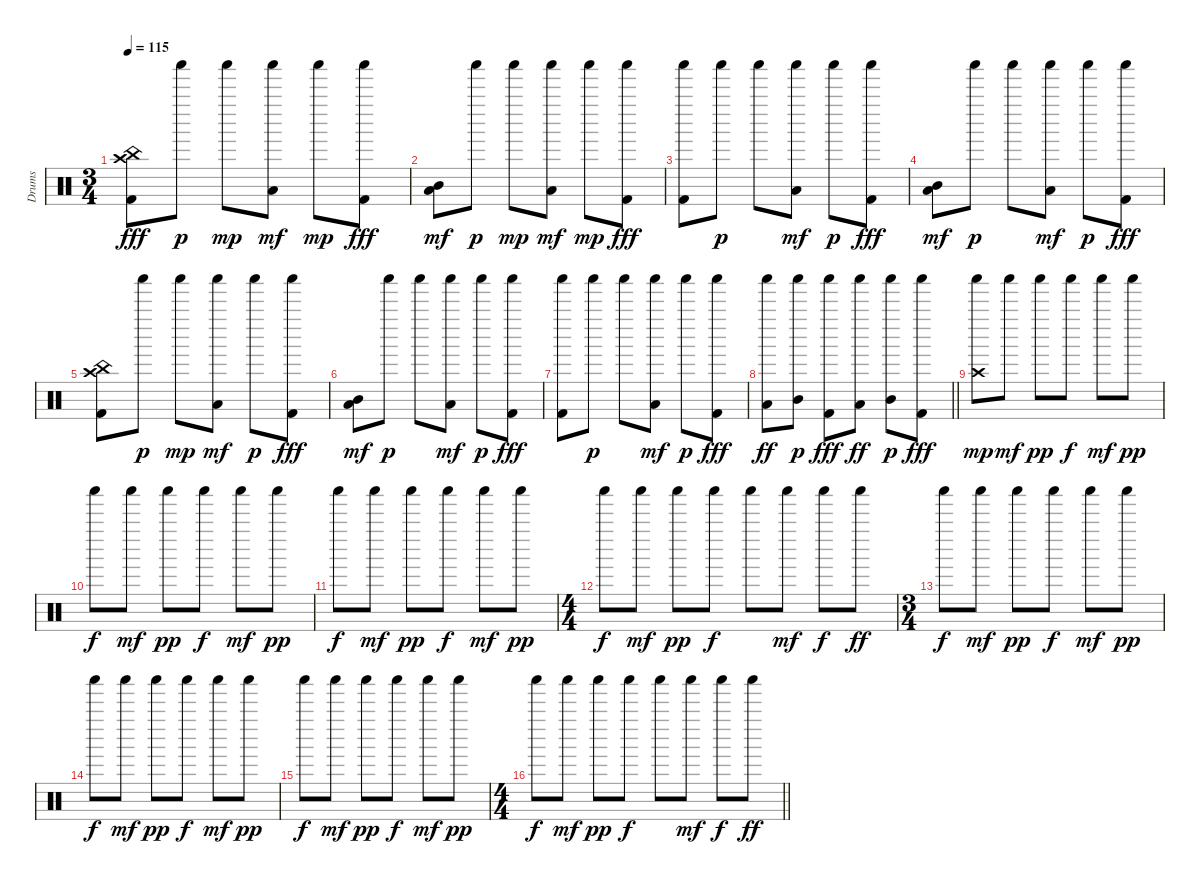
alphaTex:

\track ("Drums" "Drums") {instrument percussion}
\staff {score}
\articulation defaults
\ts (3 4)
\section ("" "")
\tempo 115
\clef neutral
\ks c
("China (hit)" "Crash high (hit)" "Kick (hit) 2").8{dy fff} "Shaker (hit)".8{dy p} "Shaker (hit)".8{dy mp} ("Shaker (hit)" "Low Tom (hit)").8{dy mf} "Shaker (hit)".8{dy mp} ("Shaker (hit)" "Kick (hit) 2").8{dy fff} |
("Mid Tom (hit)" "Low Tom (hit)").8{dy mf} "Shaker (hit)".8{dy p} "Shaker (hit)".8{dy mp} ("Shaker (hit)" "Low Tom (hit)").8{dy mf} "Shaker (hit)".8{dy mp} ("Shaker (hit)" "Kick (hit) 2").8{dy fff} |
("Shaker (hit)" "Kick (hit) 2").8 "Shaker (hit)".8{dy p} "Shaker (hit)".8 ("Shaker (hit)" "Low Tom (hit)").8{dy mf} "Shaker (hit)".8{dy p} ("Shaker (hit)" "Kick (hit) 2").8{dy fff} |
("Mid Tom (hit)" "Low Tom (hit)").8{dy mf} "Shaker (hit)".8{dy p} "Shaker (hit)".8 ("Shaker (hit)" "Low Tom (hit)").8{dy mf} "Shaker (hit)".8{dy p} ("Shaker (hit)" "Kick (hit) 2").8{dy fff} |
("China (hit)" "Crash high (hit)" "Kick (hit) 2").8 "Shaker (hit)".8{dy p} "Shaker (hit)".8{dy mp} ("Shaker (hit)" "Low Tom (hit)").8{dy mf} "Shaker (hit)".8{dy p} ("Shaker (hit)" "Kick (hit) 2").8{dy fff} |
("Mid Tom (hit)" "Low Tom (hit)").8{dy mf} "Shaker (hit)".8{dy p} "Shaker (hit)".8 ("Shaker (hit)" "Low Tom (hit)").8{dy mf} "Shaker (hit)".8{dy p} ("Shaker (hit)" "Kick (hit) 2").8{dy fff} |
("Shaker (hit)" "Kick (hit) 2").8 "Shaker (hit)".8{dy p} "Shaker (hit)".8 ("Shaker (hit)" "Low Tom (hit)").8{dy mf} "Shaker (hit)".8{dy p} ("Shaker (hit)" "Kick (hit) 2").8{dy fff} |
\barLineRight lightlight
("Shaker (hit)" "Low Tom (hit)").8{dy ff} ("Shaker (hit)" "Mid Tom (hit)").8{dy p} ("Shaker (hit)" "Kick (hit) 2").8{dy fff} ("Shaker (hit)" "Low Tom (hit)").8{dy ff} ("Shaker (hit)" "Mid Tom (hit)").8{dy p} ("Shaker (hit)" "Kick (hit) 2").8{dy fff} |
\section ("" "")
("Crash high (hit)" "Shaker (hit)").8{dy mp} "Shaker (hit)".8{dy mf} "Shaker (hit)".8{dy pp} "Shaker (hit)".8{dy f} "Shaker (hit)".8{dy mf} "Shaker (hit)".8{dy pp} |
"Shaker (hit)".8{dy f} "Shaker (hit)".8{dy mf} "Shaker (hit)".8{dy pp} "Shaker (hit)".8{dy f} "Shaker (hit)".8{dy mf} "Shaker (hit)".8{dy pp} |
"Shaker (hit)".8{dy f} "Shaker (hit)".8{dy mf} "Shaker (hit)".8{dy pp} "Shaker (hit)".8{dy f} "Shaker (hit)".8{dy mf} "Shaker (hit)".8{dy pp} |
\ts (4 4)
"Shaker (hit)".8{dy f} "Shaker (hit)".8{dy mf} "Shaker (hit)".8{dy pp} "Shaker (hit)".8{dy f} "Shaker (hit)".8 "Shaker (hit)".8{dy mf} "Shaker (hit)".8{dy f} "Shaker (hit)".8{dy ff} |
\ts (3 4)
"Shaker (hit)".8{dy f} "Shaker (hit)".8{dy mf} "Shaker (hit)".8{dy pp} "Shaker (hit)".8{dy f} "Shaker (hit)".8{dy mf} "Shaker (hit)".8{dy pp} |
"Shaker (hit)".8{dy f} "Shaker (hit)".8{dy mf} "Shaker (hit)".8{dy pp} "Shaker (hit)".8{dy f} "Shaker (hit)".8{dy mf} "Shaker (hit)".8{dy pp} |
"Shaker (hit)".8{dy f} "Shaker (hit)".8{dy mf} "Shaker (hit)".8{dy pp} "Shaker (hit)".8{dy f} "Shaker (hit)".8{dy mf} "Shaker (hit)".8{dy pp} |
\ts (4 4)
\barLineRight lightlight "Shaker (hit)".8{dy f} "Shaker (hit)".8{dy mf} "Shaker (hit)".8{dy pp} "Shaker (hit)".8{dy f} "Shaker (hit)".8 "Shaker (hit)".8{dy mf} "Shaker (hit)".8{dy f} "Shaker (hit)".8{dy ff}
